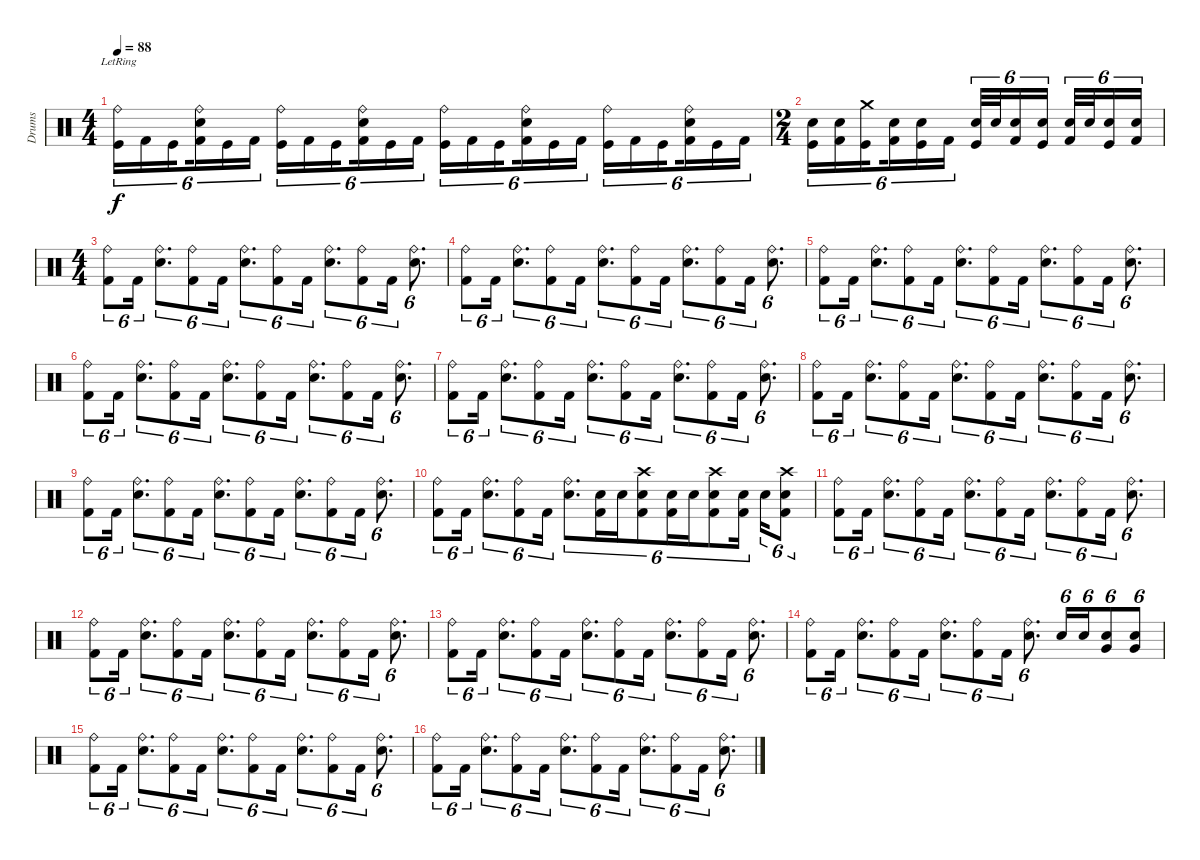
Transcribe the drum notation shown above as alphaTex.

\track ("Drums" "Drums") {instrument percussion}
\staff {score}
\articulation defaults
\ts (4 4)
\tempo 88
\clef neutral
\ks c
("Ride (bell)"{lr} "Kick (hit)").16{tu (6 4) dy f} "Kick (hit) 2".16{tu (6 4)} "Kick (hit)".16{tu (6 4) beam splitsecondary} ("Ride (bell)" "Snare (hit) 2" "Kick (hit) 2").16{tu (6 4)} "Kick (hit)".16{tu (6 4)} "Kick (hit) 2".16{tu (6 4)} ("Ride (bell)" "Kick (hit)").16{tu (6 4)} "Kick (hit) 2".16{tu (6 4)} "Kick (hit)".16{tu (6 4) beam splitsecondary} ("Ride (bell)" "Snare (hit) 2" "Kick (hit) 2").16{tu (6 4)} "Kick (hit)".16{tu (6 4)} "Kick (hit) 2".16{tu (6 4)} ("Ride (bell)" "Kick (hit)").16{tu (6 4)} "Kick (hit) 2".16{tu (6 4)} "Kick (hit)".16{tu (6 4) beam splitsecondary} ("Ride (bell)" "Snare (hit) 2" "Kick (hit) 2").16{tu (6 4)} "Kick (hit)".16{tu (6 4)} "Kick (hit) 2".16{tu (6 4)} ("Ride (bell)" "Kick (hit)").16{tu (6 4)} "Kick (hit) 2".16{tu (6 4)} "Kick (hit)".16{tu (6 4) beam splitsecondary} ("Ride (bell)" "Snare (hit) 2" "Kick (hit) 2").16{tu (6 4)} "Kick (hit)".16{tu (6 4)} "Kick (hit) 2".16{tu (6 4)} |
\ts (2 4)
("Snare (hit) 2" "Kick (hit)").16{tu (6 4)} ("Snare (hit) 2" "Kick (hit) 2").16{tu (6 4)} ("Crash medium (hit)" "Kick (hit)").16{tu (6 4) beam splitsecondary} ("Snare (hit) 2" "Kick (hit) 2").16{tu (6 4)} ("Snare (hit) 2" "Kick (hit)").16{tu (6 4)} "Kick (hit) 2".16{tu (6 4)} ("Snare (hit) 2" "Kick (hit)").32{tu (6 4)} "Snare (hit) 2".32{tu (6 4)} ("Snare (hit) 2" "Kick (hit) 2").16{tu (6 4)} ("Snare (hit) 2" "Kick (hit)").16{tu (6 4) beam splitsecondary} ("Snare (hit) 2" "Kick (hit) 2").32{tu (6 4)} "Snare (hit) 2".32{tu (6 4)} ("Snare (hit) 2" "Kick (hit)").16{tu (6 4)} ("Snare (hit) 2" "Kick (hit) 2").16{tu (6 4)} |
\ts (4 4)
("Ride (bell)" "Kick (hit) 2").8{tu (6 4)} "Kick (hit) 2".16{tu (6 4)} ("Ride (bell)" "Snare (hit) 2").8{d tu (6 4)} ("Ride (bell)" "Kick (hit) 2").8{tu (6 4)} "Kick (hit) 2".16{tu (6 4)} ("Ride (bell)" "Snare (hit) 2").8{d tu (6 4)} ("Ride (bell)" "Kick (hit) 2").8{tu (6 4)} "Kick (hit) 2".16{tu (6 4)} ("Ride (bell)" "Snare (hit) 2").8{d tu (6 4)} ("Ride (bell)" "Kick (hit) 2").8{tu (6 4)} "Kick (hit) 2".16{tu (6 4)} ("Ride (bell)" "Snare (hit) 2").8{d tu (6 4)} |
("Ride (bell)" "Kick (hit) 2").8{tu (6 4)} "Kick (hit) 2".16{tu (6 4)} ("Ride (bell)" "Snare (hit) 2").8{d tu (6 4)} ("Ride (bell)" "Kick (hit) 2").8{tu (6 4)} "Kick (hit) 2".16{tu (6 4)} ("Ride (bell)" "Snare (hit) 2").8{d tu (6 4)} ("Ride (bell)" "Kick (hit) 2").8{tu (6 4)} "Kick (hit) 2".16{tu (6 4)} ("Ride (bell)" "Snare (hit) 2").8{d tu (6 4)} ("Ride (bell)" "Kick (hit) 2").8{tu (6 4)} "Kick (hit) 2".16{tu (6 4)} ("Ride (bell)" "Snare (hit) 2").8{d tu (6 4)} |
("Ride (bell)" "Kick (hit) 2").8{tu (6 4)} "Kick (hit) 2".16{tu (6 4)} ("Ride (bell)" "Snare (hit) 2").8{d tu (6 4)} ("Ride (bell)" "Kick (hit) 2").8{tu (6 4)} "Kick (hit) 2".16{tu (6 4)} ("Ride (bell)" "Snare (hit) 2").8{d tu (6 4)} ("Ride (bell)" "Kick (hit) 2").8{tu (6 4)} "Kick (hit) 2".16{tu (6 4)} ("Ride (bell)" "Snare (hit) 2").8{d tu (6 4)} ("Ride (bell)" "Kick (hit) 2").8{tu (6 4)} "Kick (hit) 2".16{tu (6 4)} ("Ride (bell)" "Snare (hit) 2").8{d tu (6 4)} |
("Ride (bell)" "Kick (hit) 2").8{tu (6 4)} "Kick (hit) 2".16{tu (6 4)} ("Ride (bell)" "Snare (hit) 2").8{d tu (6 4)} ("Ride (bell)" "Kick (hit) 2").8{tu (6 4)} "Kick (hit) 2".16{tu (6 4)} ("Ride (bell)" "Snare (hit) 2").8{d tu (6 4)} ("Ride (bell)" "Kick (hit) 2").8{tu (6 4)} "Kick (hit) 2".16{tu (6 4)} ("Ride (bell)" "Snare (hit) 2").8{d tu (6 4)} ("Ride (bell)" "Kick (hit) 2").8{tu (6 4)} "Kick (hit) 2".16{tu (6 4)} ("Ride (bell)" "Snare (hit) 2").8{d tu (6 4)} |
("Ride (bell)" "Kick (hit) 2").8{tu (6 4)} "Kick (hit) 2".16{tu (6 4)} ("Ride (bell)" "Snare (hit) 2").8{d tu (6 4)} ("Ride (bell)" "Kick (hit) 2").8{tu (6 4)} "Kick (hit) 2".16{tu (6 4)} ("Ride (bell)" "Snare (hit) 2").8{d tu (6 4)} ("Ride (bell)" "Kick (hit) 2").8{tu (6 4)} "Kick (hit) 2".16{tu (6 4)} ("Ride (bell)" "Snare (hit) 2").8{d tu (6 4)} ("Ride (bell)" "Kick (hit) 2").8{tu (6 4)} "Kick (hit) 2".16{tu (6 4)} ("Ride (bell)" "Snare (hit) 2").8{d tu (6 4)} |
("Ride (bell)" "Kick (hit) 2").8{tu (6 4)} "Kick (hit) 2".16{tu (6 4)} ("Ride (bell)" "Snare (hit) 2").8{d tu (6 4)} ("Ride (bell)" "Kick (hit) 2").8{tu (6 4)} "Kick (hit) 2".16{tu (6 4)} ("Ride (bell)" "Snare (hit) 2").8{d tu (6 4)} ("Ride (bell)" "Kick (hit) 2").8{tu (6 4)} "Kick (hit) 2".16{tu (6 4)} ("Ride (bell)" "Snare (hit) 2").8{d tu (6 4)} ("Ride (bell)" "Kick (hit) 2").8{tu (6 4)} "Kick (hit) 2".16{tu (6 4)} ("Ride (bell)" "Snare (hit) 2").8{d tu (6 4)} |
("Ride (bell)" "Kick (hit) 2").8{tu (6 4)} "Kick (hit) 2".16{tu (6 4)} ("Ride (bell)" "Snare (hit) 2").8{d tu (6 4)} ("Ride (bell)" "Kick (hit) 2").8{tu (6 4)} "Kick (hit) 2".16{tu (6 4)} ("Ride (bell)" "Snare (hit) 2").8{d tu (6 4)} ("Ride (bell)" "Kick (hit) 2").8{tu (6 4)} "Kick (hit) 2".16{tu (6 4)} ("Ride (bell)" "Snare (hit) 2").8{d tu (6 4)} ("Ride (bell)" "Kick (hit) 2").8{tu (6 4)} "Kick (hit) 2".16{tu (6 4)} ("Ride (bell)" "Snare (hit) 2").8{d tu (6 4)} |
("Ride (bell)" "Kick (hit) 2").8{tu (6 4)} "Kick (hit) 2".16{tu (6 4)} ("Ride (bell)" "Snare (hit) 2").8{d tu (6 4)} ("Ride (bell)" "Kick (hit) 2").8{tu (6 4)} "Kick (hit) 2".16{tu (6 4)} ("Ride (bell)" "Snare (hit) 2").8{d tu (6 4)} ("Snare (hit) 2" "Kick (hit) 2").16{tu (6 4)} "Snare (hit) 2".16{tu (6 4)} ("Crash high (hit)" "Snare (hit) 2" "Kick (hit) 2").8{tu (6 4)} ("Snare (hit) 2" "Kick (hit) 2").16{tu (6 4)} "Snare (hit) 2".16{tu (6 4)} ("Crash high (hit)" "Snare (hit) 2" "Kick (hit) 2").8{tu (6 4)} ("Snare (hit) 2" "Kick (hit) 2").16{tu (6 4) beam splitsecondary} "Snare (hit) 2".16{tu (6 4)} ("Crash high (hit)" "Snare (hit) 2" "Kick (hit) 2").8{tu (6 4)} |
("Ride (bell)" "Kick (hit) 2").8{tu (6 4)} "Kick (hit) 2".16{tu (6 4)} ("Ride (bell)" "Snare (hit) 2").8{d tu (6 4)} ("Ride (bell)" "Kick (hit) 2").8{tu (6 4)} "Kick (hit) 2".16{tu (6 4)} ("Ride (bell)" "Snare (hit) 2").8{d tu (6 4)} ("Ride (bell)" "Kick (hit) 2").8{tu (6 4)} "Kick (hit) 2".16{tu (6 4)} ("Ride (bell)" "Snare (hit) 2").8{d tu (6 4)} ("Ride (bell)" "Kick (hit) 2").8{tu (6 4)} "Kick (hit) 2".16{tu (6 4)} ("Ride (bell)" "Snare (hit) 2").8{d tu (6 4)} |
("Ride (bell)" "Kick (hit) 2").8{tu (6 4)} "Kick (hit) 2".16{tu (6 4)} ("Ride (bell)" "Snare (hit) 2").8{d tu (6 4)} ("Ride (bell)" "Kick (hit) 2").8{tu (6 4)} "Kick (hit) 2".16{tu (6 4)} ("Ride (bell)" "Snare (hit) 2").8{d tu (6 4)} ("Ride (bell)" "Kick (hit) 2").8{tu (6 4)} "Kick (hit) 2".16{tu (6 4)} ("Ride (bell)" "Snare (hit) 2").8{d tu (6 4)} ("Ride (bell)" "Kick (hit) 2").8{tu (6 4)} "Kick (hit) 2".16{tu (6 4)} ("Ride (bell)" "Snare (hit) 2").8{d tu (6 4)} |
("Ride (bell)" "Kick (hit) 2").8{tu (6 4)} "Kick (hit) 2".16{tu (6 4)} ("Ride (bell)" "Snare (hit) 2").8{d tu (6 4)} ("Ride (bell)" "Kick (hit) 2").8{tu (6 4)} "Kick (hit) 2".16{tu (6 4)} ("Ride (bell)" "Snare (hit) 2").8{d tu (6 4)} ("Ride (bell)" "Kick (hit) 2").8{tu (6 4)} "Kick (hit) 2".16{tu (6 4)} ("Ride (bell)" "Snare (hit) 2").8{d tu (6 4)} ("Ride (bell)" "Kick (hit) 2").8{tu (6 4)} "Kick (hit) 2".16{tu (6 4)} ("Ride (bell)" "Snare (hit) 2").8{d tu (6 4)} |
("Ride (bell)" "Kick (hit) 2").8{tu (6 4)} "Kick (hit) 2".16{tu (6 4)} ("Ride (bell)" "Snare (hit) 2").8{d tu (6 4)} ("Ride (bell)" "Kick (hit) 2").8{tu (6 4)} "Kick (hit) 2".16{tu (6 4)} ("Ride (bell)" "Snare (hit) 2").8{d tu (6 4)} ("Ride (bell)" "Kick (hit) 2").8{tu (6 4)} "Kick (hit) 2".16{tu (6 4)} ("Ride (bell)" "Snare (hit) 2").8{d tu (6 4)} "Snare (hit) 2".16{tu (6 4)} "Snare (hit) 2".16{tu (6 4)} ("Very Low Tom (hit)" "Snare (hit) 2").8{tu (6 4)} ("Snare (hit) 2" "Very Low Tom (hit)").8{tu (6 4)} |
("Ride (bell)" "Kick (hit) 2").8{tu (6 4)} "Kick (hit) 2".16{tu (6 4)} ("Ride (bell)" "Snare (hit) 2").8{d tu (6 4)} ("Ride (bell)" "Kick (hit) 2").8{tu (6 4)} "Kick (hit) 2".16{tu (6 4)} ("Ride (bell)" "Snare (hit) 2").8{d tu (6 4)} ("Ride (bell)" "Kick (hit) 2").8{tu (6 4)} "Kick (hit) 2".16{tu (6 4)} ("Ride (bell)" "Snare (hit) 2").8{d tu (6 4)} ("Ride (bell)" "Kick (hit) 2").8{tu (6 4)} "Kick (hit) 2".16{tu (6 4)} ("Ride (bell)" "Snare (hit) 2").8{d tu (6 4)} |
("Ride (bell)" "Kick (hit) 2").8{tu (6 4)} "Kick (hit) 2".16{tu (6 4)} ("Ride (bell)" "Snare (hit) 2").8{d tu (6 4)} ("Ride (bell)" "Kick (hit) 2").8{tu (6 4)} "Kick (hit) 2".16{tu (6 4)} ("Ride (bell)" "Snare (hit) 2").8{d tu (6 4)} ("Ride (bell)" "Kick (hit) 2").8{tu (6 4)} "Kick (hit) 2".16{tu (6 4)} ("Ride (bell)" "Snare (hit) 2").8{d tu (6 4)} ("Ride (bell)" "Kick (hit) 2").8{tu (6 4)} "Kick (hit) 2".16{tu (6 4)} ("Ride (bell)" "Snare (hit) 2").8{d tu (6 4)}
